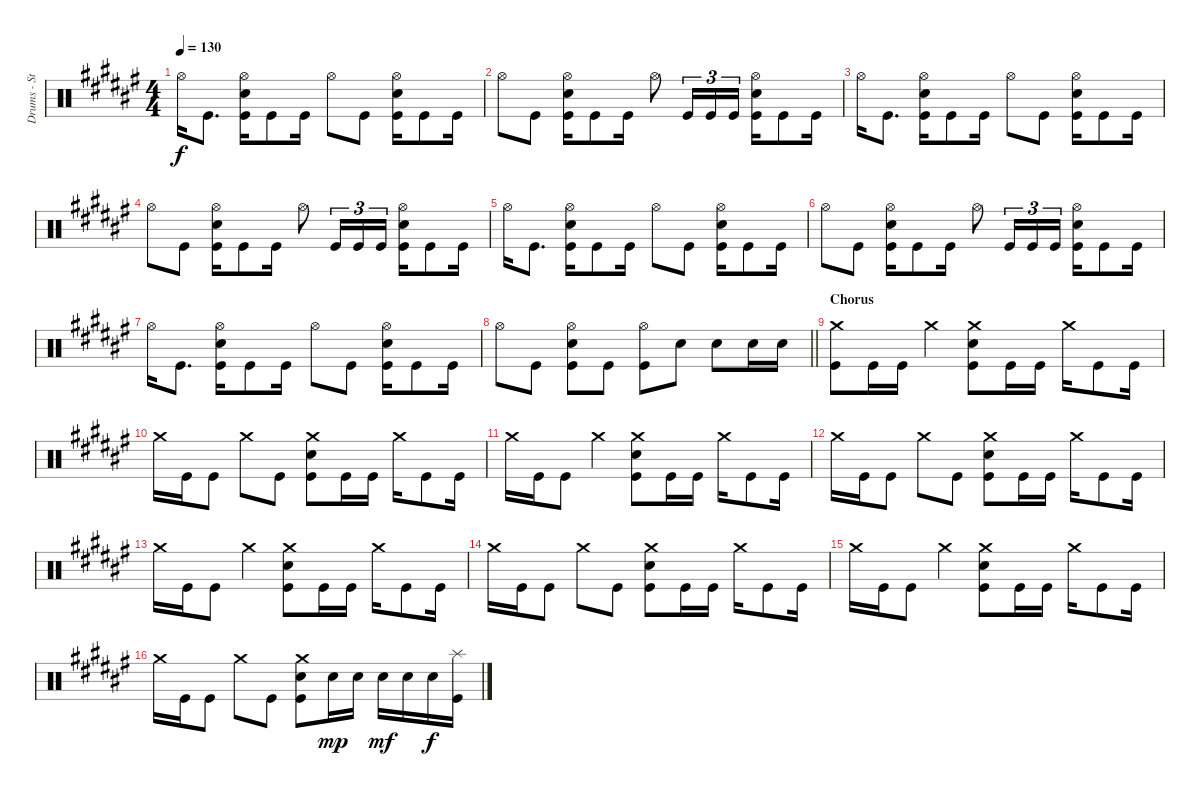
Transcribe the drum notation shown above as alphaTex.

\track ("Drums - Stef Broks" "Drums - St") {instrument percussion}
\staff {score}
\articulation defaults
\ts (4 4)
\tempo 130
\clef neutral
\ks d#minor "Hi-Hat (open)".16{dy f} "Kick (hit)".8{d}
("Snare (hit) 2" "Kick (hit)" "Hi-Hat (open)").16 "Kick (hit)".8 "Kick (hit)".16 "Hi-Hat (open)".8 "Kick (hit)".8 ("Kick (hit)" "Snare (hit) 2" "Hi-Hat (open)").16 "Kick (hit)".8 "Kick (hit)".16 |
"Hi-Hat (open)".8 "Kick (hit)".8 ("Kick (hit)" "Snare (hit) 2" "Hi-Hat (open)").16 "Kick (hit)".8 "Kick (hit)".16 "Hi-Hat (open)".8 "Kick (hit)".16{tu (3 2)} "Kick (hit)".16{tu (3 2)} "Kick (hit)".16{tu (3 2)} ("Snare (hit) 2" "Kick (hit)" "Hi-Hat (open)").16 "Kick (hit)".8 "Kick (hit)".16 |
"Hi-Hat (open)".16 "Kick (hit)".8{d} ("Snare (hit) 2" "Kick (hit)" "Hi-Hat (open)").16 "Kick (hit)".8 "Kick (hit)".16 "Hi-Hat (open)".8 "Kick (hit)".8 ("Kick (hit)" "Snare (hit) 2" "Hi-Hat (open)").16 "Kick (hit)".8 "Kick (hit)".16 |
"Hi-Hat (open)".8 "Kick (hit)".8 ("Kick (hit)" "Snare (hit) 2" "Hi-Hat (open)").16 "Kick (hit)".8 "Kick (hit)".16 "Hi-Hat (open)".8 "Kick (hit)".16{tu (3 2)} "Kick (hit)".16{tu (3 2)} "Kick (hit)".16{tu (3 2)} ("Snare (hit) 2" "Kick (hit)" "Hi-Hat (open)").16 "Kick (hit)".8 "Kick (hit)".16 |
"Hi-Hat (open)".16 "Kick (hit)".8{d} ("Snare (hit) 2" "Kick (hit)" "Hi-Hat (open)").16 "Kick (hit)".8 "Kick (hit)".16 "Hi-Hat (open)".8 "Kick (hit)".8 ("Kick (hit)" "Snare (hit) 2" "Hi-Hat (open)").16 "Kick (hit)".8 "Kick (hit)".16 |
"Hi-Hat (open)".8 "Kick (hit)".8 ("Kick (hit)" "Snare (hit) 2" "Hi-Hat (open)").16 "Kick (hit)".8 "Kick (hit)".16 "Hi-Hat (open)".8 "Kick (hit)".16{tu (3 2)} "Kick (hit)".16{tu (3 2)} "Kick (hit)".16{tu (3 2)} ("Snare (hit) 2" "Kick (hit)" "Hi-Hat (open)").16 "Kick (hit)".8 "Kick (hit)".16 |
"Hi-Hat (open)".16 "Kick (hit)".8{d} ("Snare (hit) 2" "Kick (hit)" "Hi-Hat (open)").16 "Kick (hit)".8 "Kick (hit)".16 "Hi-Hat (open)".8 "Kick (hit)".8 ("Kick (hit)" "Snare (hit) 2" "Hi-Hat (open)").16 "Kick (hit)".8 "Kick (hit)".16 |
\barLineRight lightlight "Hi-Hat (open)".8 "Kick (hit)".8
("Kick (hit)" "Snare (hit) 2" "Hi-Hat (open)").8 "Kick (hit)".8 ("Hi-Hat (open)" "Kick (hit)").8 "Snare (hit) 2".8 "Snare (hit) 2".8 "Snare (hit) 2".16 "Snare (hit) 2".16 |
\section ("" "Chorus")
("Crash medium (hit)" "Kick (hit)").8 "Kick (hit)".16 "Kick (hit)".16 "Crash medium (hit)".4 ("Kick (hit)" "Crash medium (hit)" "Snare (hit) 2").8 "Kick (hit)".16 "Kick (hit)".16 "Crash medium (hit)".16 "Kick (hit)".8 "Kick (hit)".16 |
"Crash medium (hit)".16 "Kick (hit)".16 "Kick (hit)".8 "Crash medium (hit)".8 "Kick (hit)".8 ("Kick (hit)" "Snare (hit) 2" "Crash medium (hit)").8 "Kick (hit)".16 "Kick (hit)".16 "Crash medium (hit)".16 "Kick (hit)".8 "Kick (hit)".16 |
"Crash medium (hit)".16 "Kick (hit)".16 "Kick (hit)".8 "Crash medium (hit)".4 ("Kick (hit)" "Snare (hit) 2" "Crash medium (hit)").8 "Kick (hit)".16 "Kick (hit)".16 "Crash medium (hit)".16 "Kick (hit)".8 "Kick (hit)".16 |
"Crash medium (hit)".16 "Kick (hit)".16 "Kick (hit)".8 "Crash medium (hit)".8 "Kick (hit)".8 ("Kick (hit)" "Snare (hit) 2" "Crash medium (hit)").8 "Kick (hit)".16 "Kick (hit)".16 "Crash medium (hit)".16 "Kick (hit)".8 "Kick (hit)".16 |
"Crash medium (hit)".16 "Kick (hit)".16 "Kick (hit)".8 "Crash medium (hit)".4 ("Kick (hit)" "Snare (hit) 2" "Crash medium (hit)").8 "Kick (hit)".16 "Kick (hit)".16 "Crash medium (hit)".16 "Kick (hit)".8 "Kick (hit)".16 |
"Crash medium (hit)".16 "Kick (hit)".16 "Kick (hit)".8 "Crash medium (hit)".8 "Kick (hit)".8 ("Kick (hit)" "Snare (hit) 2" "Crash medium (hit)").8 "Kick (hit)".16 "Kick (hit)".16 "Crash medium (hit)".16 "Kick (hit)".8 "Kick (hit)".16 |
"Crash medium (hit)".16 "Kick (hit)".16 "Kick (hit)".8 "Crash medium (hit)".4 ("Kick (hit)" "Snare (hit) 2" "Crash medium (hit)").8 "Kick (hit)".16 "Kick (hit)".16 "Crash medium (hit)".16 "Kick (hit)".8 "Kick (hit)".16 |
"Crash medium (hit)".16 "Kick (hit)".16 "Kick (hit)".8 "Crash medium (hit)".8 "Kick (hit)".8 ("Kick (hit)" "Snare (hit) 2" "Crash medium (hit)").8 "Snare (hit) 2".16{dy mp} "Snare (hit) 2".16 "Snare (hit) 2".16{dy mf} "Snare (hit) 2".16 "Snare (hit) 2".16{dy f} ("Kick (hit)" "Splash (hit)").16
